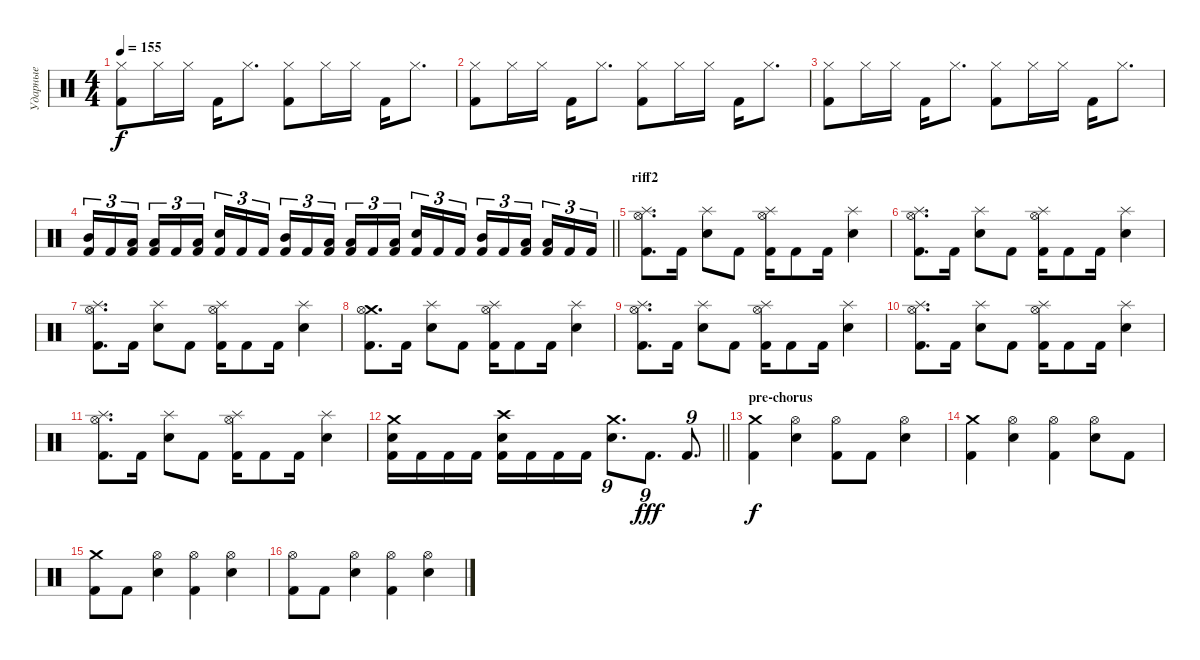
\track ("Ударные" "Ударные") {instrument percussion}
\staff {score}
\articulation defaults
\ts (4 4)
\tempo 155
\clef neutral
\ks c
("Hi-Hat (closed)" "Kick (hit) 2").8{dy f} "Hi-Hat (closed)".16 "Hi-Hat (closed)".16 "Kick (hit) 2".16 "Hi-Hat (closed)".8{d} ("Hi-Hat (closed)" "Kick (hit) 2").8 "Hi-Hat (closed)".16 "Hi-Hat (closed)".16 "Kick (hit) 2".16 "Hi-Hat (closed)".8{d} |
("Hi-Hat (closed)" "Kick (hit) 2").8 "Hi-Hat (closed)".16 "Hi-Hat (closed)".16 "Kick (hit) 2".16 "Hi-Hat (closed)".8{d} ("Hi-Hat (closed)" "Kick (hit) 2").8 "Hi-Hat (closed)".16 "Hi-Hat (closed)".16 "Kick (hit) 2".16 "Hi-Hat (closed)".8{d} |
("Hi-Hat (closed)" "Kick (hit) 2").8 "Hi-Hat (closed)".16 "Hi-Hat (closed)".16 "Kick (hit) 2".16 "Hi-Hat (closed)".8{d} ("Hi-Hat (closed)" "Kick (hit) 2").8 "Hi-Hat (closed)".16 "Hi-Hat (closed)".16 "Kick (hit) 2".16 "Hi-Hat (closed)".8{d} |
\barLineRight lightlight
("Mid Tom (hit)" "Kick (hit) 2").16{tu (3 2)} "Kick (hit) 2".16{tu (3 2)} ("Low Tom (hit)" "Kick (hit) 2").16{tu (3 2) beam splitsecondary} ("Low Tom (hit)" "Kick (hit) 2").16{tu (3 2)} "Kick (hit) 2".16{tu (3 2)} ("Low Floor Tom (hit)" "Kick (hit) 2").16{tu (3 2)} ("Electric Snare (hit)" "Kick (hit) 2").16{tu (3 2)} "Kick (hit) 2".16{tu (3 2)} "Kick (hit) 2".16{tu (3 2) beam splitsecondary} ("Mid Tom (hit)" "Kick (hit) 2").16{tu (3 2)} "Kick (hit) 2".16{tu (3 2)} ("Low Tom (hit)" "Kick (hit) 2").16{tu (3 2)} ("Low Tom (hit)" "Kick (hit) 2").16{tu (3 2)} "Kick (hit) 2".16{tu (3 2)} ("Low Floor Tom (hit)" "Kick (hit) 2").16{tu (3 2) beam splitsecondary} ("Electric Snare (hit)" "Kick (hit) 2").16{tu (3 2)} "Kick (hit) 2".16{tu (3 2)} "Kick (hit) 2".16{tu (3 2)} ("Mid Tom (hit)" "Kick (hit) 2").16{tu (3 2)} "Kick (hit) 2".16{tu (3 2)} ("Low Tom (hit)" "Kick (hit) 2").16{tu (3 2) beam splitsecondary} ("Low Tom (hit)" "Kick (hit) 2").16{tu (3 2)} "Kick (hit) 2".16{tu (3 2)} "Kick (hit) 2".16{tu (3 2)} |
\section ("" "riff2")
("Splash (hit)" "Hi-Hat (open)" "Kick (hit) 2").8{d} "Kick (hit) 2".16 ("Splash (hit)" "Electric Snare (hit)").8 "Kick (hit) 2".8 ("Splash (hit)" "Hi-Hat (open)" "Kick (hit) 2").16 "Kick (hit) 2".8 "Kick (hit) 2".16 ("Splash (hit)" "Electric Snare (hit)").4 |
("Splash (hit)" "Hi-Hat (open)" "Kick (hit) 2").8{d} "Kick (hit) 2".16 ("Splash (hit)" "Electric Snare (hit)").8 "Kick (hit) 2".8 ("Splash (hit)" "Hi-Hat (open)" "Kick (hit) 2").16 "Kick (hit) 2".8 "Kick (hit) 2".16 ("Splash (hit)" "Electric Snare (hit)").4 |
("Splash (hit)" "Hi-Hat (open)" "Kick (hit) 2").8{d} "Kick (hit) 2".16 ("Splash (hit)" "Electric Snare (hit)").8 "Kick (hit) 2".8 ("Splash (hit)" "Hi-Hat (open)" "Kick (hit) 2").16 "Kick (hit) 2".8 "Kick (hit) 2".16 ("Splash (hit)" "Electric Snare (hit)").4 |
("Crash medium (hit)" "Hi-Hat (open)" "Kick (hit) 2").8{d} "Kick (hit) 2".16 ("Splash (hit)" "Electric Snare (hit)").8 "Kick (hit) 2".8 ("Splash (hit)" "Hi-Hat (open)" "Kick (hit) 2").16 "Kick (hit) 2".8 "Kick (hit) 2".16 ("Splash (hit)" "Electric Snare (hit)").4 |
("Splash (hit)" "Hi-Hat (open)" "Kick (hit) 2").8{d} "Kick (hit) 2".16 ("Splash (hit)" "Electric Snare (hit)").8 "Kick (hit) 2".8 ("Splash (hit)" "Hi-Hat (open)" "Kick (hit) 2").16 "Kick (hit) 2".8 "Kick (hit) 2".16 ("Splash (hit)" "Electric Snare (hit)").4 |
("Splash (hit)" "Hi-Hat (open)" "Kick (hit) 2").8{d} "Kick (hit) 2".16 ("Splash (hit)" "Electric Snare (hit)").8 "Kick (hit) 2".8 ("Splash (hit)" "Hi-Hat (open)" "Kick (hit) 2").16 "Kick (hit) 2".8 "Kick (hit) 2".16 ("Splash (hit)" "Electric Snare (hit)").4 |
("Splash (hit)" "Hi-Hat (open)" "Kick (hit) 2").8{d} "Kick (hit) 2".16 ("Splash (hit)" "Electric Snare (hit)").8 "Kick (hit) 2".8 ("Splash (hit)" "Hi-Hat (open)" "Kick (hit) 2").16 "Kick (hit) 2".8 "Kick (hit) 2".16 ("Splash (hit)" "Electric Snare (hit)").4 |
\barLineRight lightlight
("Crash medium (hit)" "Electric Snare (hit)" "Kick (hit) 2").16 "Kick (hit) 2".16 "Kick (hit) 2".16 "Kick (hit) 2".16 ("Crash high (hit)" "Electric Snare (hit)" "Kick (hit) 2").16 "Kick (hit) 2".16 "Kick (hit) 2".16 "Kick (hit) 2".16 ("Crash medium (hit)" "Electric Snare (hit)").8{d tu (9 8)} "Kick (hit) 2".8{d tu (9 8) dy fff} "Kick (hit) 2".8{d tu (9 8)} |
\section ("" "pre-chorus")
("Crash medium (hit)" "Kick (hit) 2").4{dy f} ("Hi-Hat (open)" "Electric Snare (hit)").4 ("Hi-Hat (open)" "Kick (hit) 2").8 "Kick (hit) 2".8 ("Hi-Hat (open)" "Electric Snare (hit)").4 |
("Crash medium (hit)" "Kick (hit) 2").4 ("Hi-Hat (open)" "Electric Snare (hit)").4 ("Hi-Hat (open)" "Kick (hit) 2").4 ("Hi-Hat (open)" "Electric Snare (hit)").8 "Kick (hit) 2".8 |
("Crash medium (hit)" "Kick (hit) 2").8 "Kick (hit) 2".8 ("Hi-Hat (open)" "Electric Snare (hit)").4 ("Hi-Hat (open)" "Kick (hit) 2").4 ("Hi-Hat (open)" "Electric Snare (hit)").4 |
("Hi-Hat (open)" "Kick (hit) 2").8 "Kick (hit) 2".8 ("Hi-Hat (open)" "Electric Snare (hit)").4 ("Hi-Hat (open)" "Kick (hit) 2").4 ("Hi-Hat (open)" "Electric Snare (hit)").4
